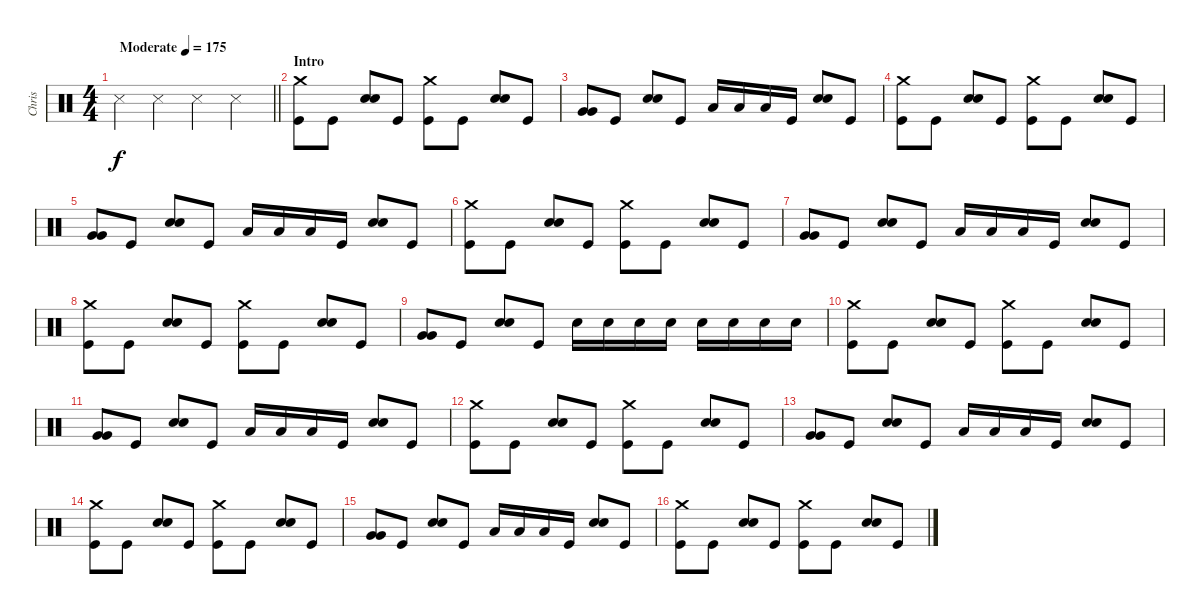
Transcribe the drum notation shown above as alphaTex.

\track ("Chris" "Chris") {instrument percussion}
\staff {score}
\articulation defaults
\ts (4 4)
\tempo (175 "Moderate")
\clef neutral
\barLineRight lightlight
\ks c "Snare (side stick) 3".4{dy f} "Snare (side stick) 3".4 "Snare (side stick) 3".4 "Snare (side stick) 3".4
|
\section ("" "Intro")
("Crash medium (hit)" "Kick (hit)").8 "Kick (hit)".8 ("Snare (hit) 2" "Snare (hit) 2").8{bd 120} "Kick (hit)".8 ("Crash medium (hit)" "Kick (hit)").8 "Kick (hit)".8 ("Snare (hit) 2" "Snare (hit) 2").8{bd 120} "Kick (hit)".8 |
("Very Low Tom (hit)" "Very Low Tom (hit)").8{bd 120} "Kick (hit)".8 ("Snare (hit) 2" "Snare (hit) 2").8{bd 120} "Kick (hit)".8 "Low Floor Tom (hit)".16 "Low Floor Tom (hit)".16 "Low Floor Tom (hit)".16 "Kick (hit)".16 ("Snare (hit) 2" "Snare (hit) 2").8{bd 120} "Kick (hit)".8 |
("Crash medium (hit)" "Kick (hit)").8 "Kick (hit)".8 ("Snare (hit) 2" "Snare (hit) 2").8{bd 120} "Kick (hit)".8 ("Crash medium (hit)" "Kick (hit)").8 "Kick (hit)".8 ("Snare (hit) 2" "Snare (hit) 2").8{bd 120} "Kick (hit)".8 |
("Very Low Tom (hit)" "Very Low Tom (hit)").8{bd 120} "Kick (hit)".8 ("Snare (hit) 2" "Snare (hit) 2").8{bd 120} "Kick (hit)".8 "Low Floor Tom (hit)".16 "Low Floor Tom (hit)".16 "Low Floor Tom (hit)".16 "Kick (hit)".16 ("Snare (hit) 2" "Snare (hit) 2").8{bd 120} "Kick (hit)".8 |
("Crash medium (hit)" "Kick (hit)").8 "Kick (hit)".8 ("Snare (hit) 2" "Snare (hit) 2").8{bd 120} "Kick (hit)".8 ("Crash medium (hit)" "Kick (hit)").8 "Kick (hit)".8 ("Snare (hit) 2" "Snare (hit) 2").8{bd 120} "Kick (hit)".8 |
("Very Low Tom (hit)" "Very Low Tom (hit)").8{bd 120} "Kick (hit)".8 ("Snare (hit) 2" "Snare (hit) 2").8{bd 120} "Kick (hit)".8 "Low Floor Tom (hit)".16 "Low Floor Tom (hit)".16 "Low Floor Tom (hit)".16 "Kick (hit)".16 ("Snare (hit) 2" "Snare (hit) 2").8{bd 120} "Kick (hit)".8 |
("Crash medium (hit)" "Kick (hit)").8 "Kick (hit)".8 ("Snare (hit) 2" "Snare (hit) 2").8{bd 120} "Kick (hit)".8 ("Crash medium (hit)" "Kick (hit)").8 "Kick (hit)".8 ("Snare (hit) 2" "Snare (hit) 2").8{bd 120} "Kick (hit)".8 |
("Very Low Tom (hit)" "Very Low Tom (hit)").8{bd 120} "Kick (hit)".8 ("Snare (hit) 2" "Snare (hit) 2").8{bd 120} "Kick (hit)".8 "Snare (hit) 2".16 "Snare (hit) 2".16 "Snare (hit) 2".16 "Snare (hit) 2".16 "Snare (hit) 2".16 "Snare (hit) 2".16 "Snare (hit) 2".16 "Snare (hit) 2".16 |
("Crash medium (hit)" "Kick (hit)").8 "Kick (hit)".8 ("Snare (hit) 2" "Snare (hit) 2").8{bd 120} "Kick (hit)".8 ("Crash medium (hit)" "Kick (hit)").8 "Kick (hit)".8 ("Snare (hit) 2" "Snare (hit) 2").8{bd 120} "Kick (hit)".8 |
("Very Low Tom (hit)" "Very Low Tom (hit)").8{bd 120} "Kick (hit)".8 ("Snare (hit) 2" "Snare (hit) 2").8{bd 120} "Kick (hit)".8 "Low Floor Tom (hit)".16 "Low Floor Tom (hit)".16 "Low Floor Tom (hit)".16 "Kick (hit)".16 ("Snare (hit) 2" "Snare (hit) 2").8{bd 120} "Kick (hit)".8 |
("Crash medium (hit)" "Kick (hit)").8 "Kick (hit)".8 ("Snare (hit) 2" "Snare (hit) 2").8{bd 120} "Kick (hit)".8 ("Crash medium (hit)" "Kick (hit)").8 "Kick (hit)".8 ("Snare (hit) 2" "Snare (hit) 2").8{bd 120} "Kick (hit)".8 |
("Very Low Tom (hit)" "Very Low Tom (hit)").8{bd 120} "Kick (hit)".8 ("Snare (hit) 2" "Snare (hit) 2").8{bd 120} "Kick (hit)".8 "Low Floor Tom (hit)".16 "Low Floor Tom (hit)".16 "Low Floor Tom (hit)".16 "Kick (hit)".16 ("Snare (hit) 2" "Snare (hit) 2").8{bd 120} "Kick (hit)".8 |
("Crash medium (hit)" "Kick (hit)").8 "Kick (hit)".8 ("Snare (hit) 2" "Snare (hit) 2").8{bd 120} "Kick (hit)".8 ("Crash medium (hit)" "Kick (hit)").8 "Kick (hit)".8 ("Snare (hit) 2" "Snare (hit) 2").8{bd 120} "Kick (hit)".8 |
("Very Low Tom (hit)" "Very Low Tom (hit)").8{bd 120} "Kick (hit)".8 ("Snare (hit) 2" "Snare (hit) 2").8{bd 120} "Kick (hit)".8 "Low Floor Tom (hit)".16 "Low Floor Tom (hit)".16 "Low Floor Tom (hit)".16 "Kick (hit)".16 ("Snare (hit) 2" "Snare (hit) 2").8{bd 120} "Kick (hit)".8 |
("Crash medium (hit)" "Kick (hit)").8 "Kick (hit)".8 ("Snare (hit) 2" "Snare (hit) 2").8{bd 120} "Kick (hit)".8 ("Crash medium (hit)" "Kick (hit)").8 "Kick (hit)".8 ("Snare (hit) 2" "Snare (hit) 2").8{bd 120} "Kick (hit)".8
